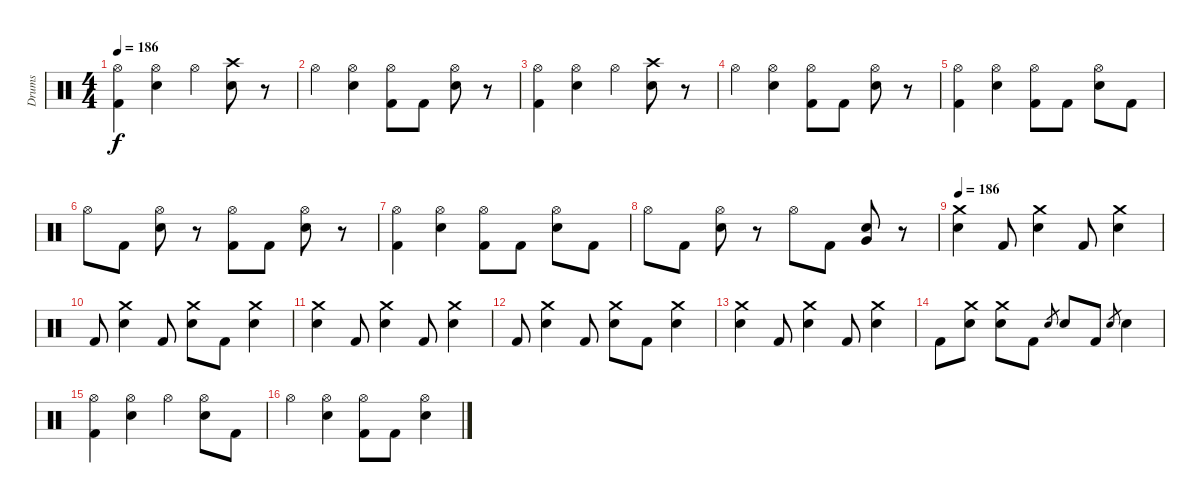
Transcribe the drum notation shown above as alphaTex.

\track ("Drums" "Drums") {instrument percussion}
\staff {score}
\articulation defaults
\ts (4 4)
\tempo 186
\clef neutral
\ks c
("Hi-Hat (open)" "Kick (hit) 2").4{dy f} ("Hi-Hat (open)" "Snare (hit) 2").4 "Hi-Hat (open)".4 ("Crash high (hit)" "Snare (hit) 2").8 r.8 |
"Hi-Hat (open)".4 ("Hi-Hat (open)" "Snare (hit) 2").4 ("Hi-Hat (open)" "Kick (hit) 2").8 "Kick (hit) 2".8 ("Hi-Hat (open)" "Snare (hit) 2").8 r.8 |
("Hi-Hat (open)" "Kick (hit) 2").4 ("Hi-Hat (open)" "Snare (hit) 2").4 "Hi-Hat (open)".4 ("Crash high (hit)" "Snare (hit) 2").8 r.8 |
"Hi-Hat (open)".4 ("Hi-Hat (open)" "Snare (hit) 2").4 ("Hi-Hat (open)" "Kick (hit) 2").8 "Kick (hit) 2".8 ("Hi-Hat (open)" "Snare (hit) 2").8 r.8 |
("Hi-Hat (open)" "Kick (hit) 2").4 ("Hi-Hat (open)" "Snare (hit) 2").4 ("Hi-Hat (open)" "Kick (hit) 2").8 "Kick (hit) 2".8 ("Hi-Hat (open)" "Snare (hit) 2").8 "Kick (hit) 2".8 |
"Hi-Hat (open)".8 "Kick (hit) 2".8 ("Hi-Hat (open)" "Snare (hit) 2").8 r.8 ("Hi-Hat (open)" "Kick (hit) 2").8 "Kick (hit) 2".8 ("Hi-Hat (open)" "Snare (hit) 2").8 r.8 |
("Hi-Hat (open)" "Kick (hit) 2").4 ("Hi-Hat (open)" "Snare (hit) 2").4 ("Hi-Hat (open)" "Kick (hit) 2").8 "Kick (hit) 2".8 ("Hi-Hat (open)" "Snare (hit) 2").8 "Kick (hit) 2".8 |
"Hi-Hat (open)".8 "Kick (hit) 2".8 ("Hi-Hat (open)" "Snare (hit) 2").8 r.8 "Hi-Hat (open)".8 "Kick (hit) 2".8 ("Very Low Tom (hit)" "Snare (hit) 2").8 r.8 |
\tempo 186
("Crash medium (hit)" "Snare (hit) 2").4 "Kick (hit) 2".8 ("Crash medium (hit)" "Snare (hit) 2").4 "Kick (hit) 2".8 ("Crash medium (hit)" "Snare (hit) 2").4 |
"Kick (hit) 2".8 ("Crash medium (hit)" "Snare (hit) 2").4 "Kick (hit) 2".8 ("Crash medium (hit)" "Snare (hit) 2").8 "Kick (hit) 2".8 ("Crash medium (hit)" "Snare (hit) 2").4 |
("Crash medium (hit)" "Snare (hit) 2").4 "Kick (hit) 2".8 ("Crash medium (hit)" "Snare (hit) 2").4 "Kick (hit) 2".8 ("Crash medium (hit)" "Snare (hit) 2").4 |
"Kick (hit) 2".8 ("Crash medium (hit)" "Snare (hit) 2").4 "Kick (hit) 2".8 ("Crash medium (hit)" "Snare (hit) 2").8 "Kick (hit) 2".8 ("Crash medium (hit)" "Snare (hit) 2").4 |
("Crash medium (hit)" "Snare (hit) 2").4 "Kick (hit) 2".8 ("Crash medium (hit)" "Snare (hit) 2").4 "Kick (hit) 2".8 ("Crash medium (hit)" "Snare (hit) 2").4 |
"Kick (hit) 2".8 ("Crash medium (hit)" "Snare (hit) 2").8 ("Crash medium (hit)" "Snare (hit) 2").8 "Kick (hit) 2".8 "Snare (hit) 2".8{gr} "Snare (hit) 2".8 "Kick (hit) 2".8 "Snare (hit) 2".8{gr} "Snare (hit) 2".4 |
("Hi-Hat (open)" "Kick (hit) 2").4 ("Hi-Hat (open)" "Snare (hit) 2").4 "Hi-Hat (open)".4 ("Hi-Hat (open)" "Snare (hit) 2").8 "Kick (hit) 2".8 |
"Hi-Hat (open)".4 ("Hi-Hat (open)" "Snare (hit) 2").4 ("Hi-Hat (open)" "Kick (hit) 2").8 "Kick (hit) 2".8 ("Hi-Hat (open)" "Snare (hit) 2").4
